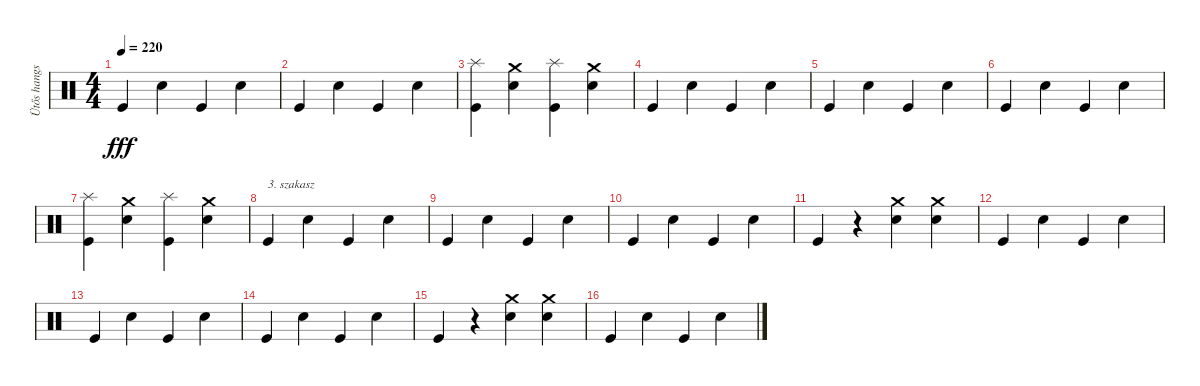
\track ("Ütős hangszer" "Ütős hangs") {instrument percussion}
\staff {score}
\articulation defaults
\ts (4 4)
\tempo 220
\clef neutral
\ks c "Kick (hit)".4{dy fff} "Snare (hit) 2".4 "Kick (hit)".4 "Snare (hit) 2".4
|
"Kick (hit)".4 "Snare (hit) 2".4 "Kick (hit)".4 "Snare (hit) 2".4 |
("Splash (hit)" "Kick (hit)").4 ("Crash medium (hit)" "Snare (hit) 2").4 ("Splash (hit)" "Kick (hit)").4 ("Crash medium (hit)" "Snare (hit) 2").4 |
"Kick (hit)".4 "Snare (hit) 2".4 "Kick (hit)".4 "Snare (hit) 2".4 |
"Kick (hit)".4 "Snare (hit) 2".4 "Kick (hit)".4 "Snare (hit) 2".4 |
"Kick (hit)".4 "Snare (hit) 2".4 "Kick (hit)".4 "Snare (hit) 2".4 |
("Splash (hit)" "Kick (hit)").4 ("Crash medium (hit)" "Snare (hit) 2").4 ("Splash (hit)" "Kick (hit)").4 ("Crash medium (hit)" "Snare (hit) 2").4 |
"Kick (hit)".4{txt "3. szakasz"} "Snare (hit) 2".4 "Kick (hit)".4 "Snare (hit) 2".4 |
"Kick (hit)".4 "Snare (hit) 2".4 "Kick (hit)".4 "Snare (hit) 2".4 |
"Kick (hit)".4 "Snare (hit) 2".4 "Kick (hit)".4 "Snare (hit) 2".4 |
"Kick (hit)".4 r.4 ("Crash medium (hit)" "Snare (hit) 2").4 ("Crash medium (hit)" "Snare (hit) 2").4 |
"Kick (hit)".4 "Snare (hit) 2".4 "Kick (hit)".4 "Snare (hit) 2".4 |
"Kick (hit)".4 "Snare (hit) 2".4 "Kick (hit)".4 "Snare (hit) 2".4 |
"Kick (hit)".4 "Snare (hit) 2".4 "Kick (hit)".4 "Snare (hit) 2".4 |
"Kick (hit)".4 r.4 ("Crash medium (hit)" "Snare (hit) 2").4 ("Crash medium (hit)" "Snare (hit) 2").4 |
"Kick (hit)".4 "Snare (hit) 2".4 "Kick (hit)".4 "Snare (hit) 2".4
